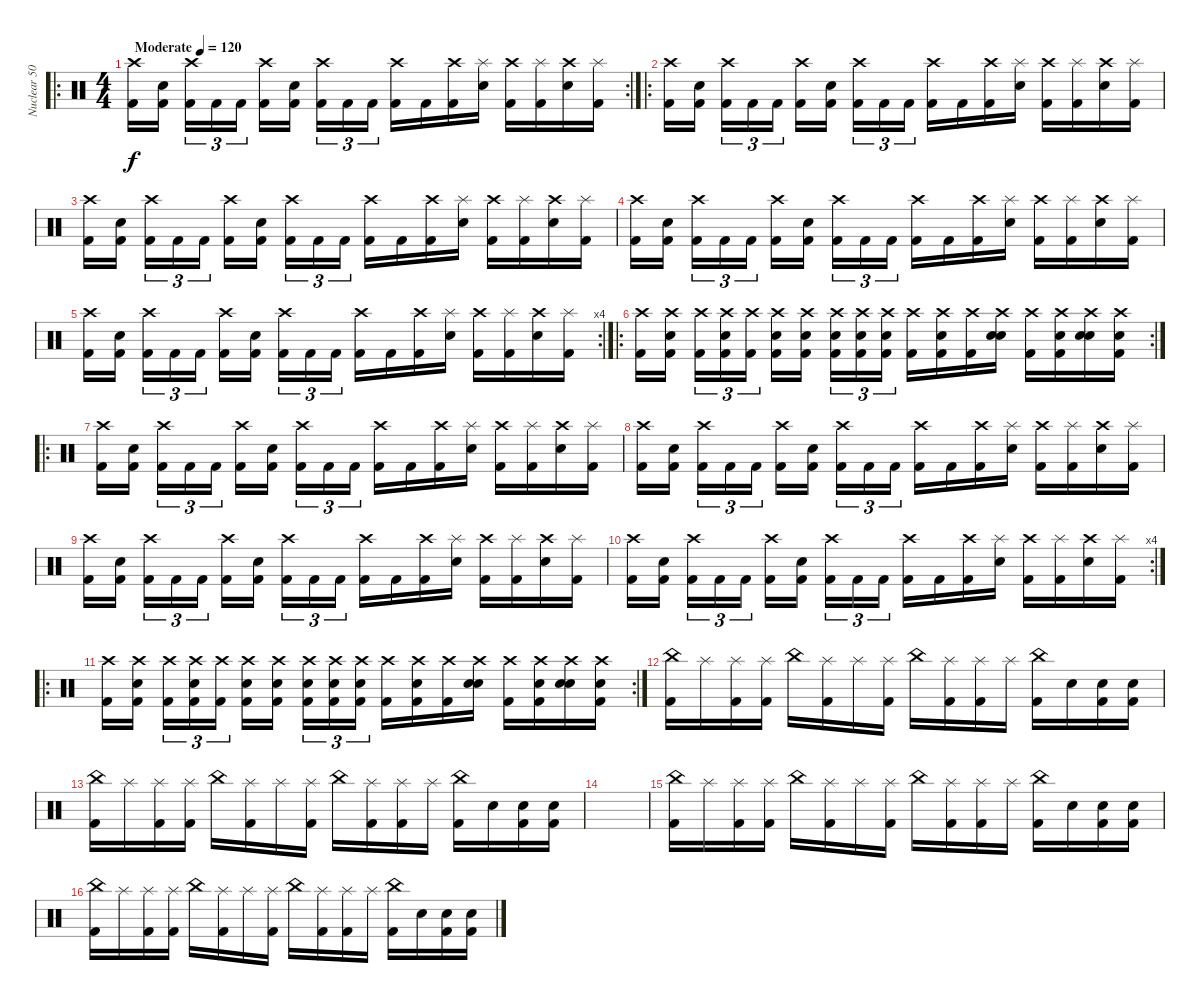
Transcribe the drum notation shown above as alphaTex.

\track ("Nuclear 5000" "Nuclear 50") {instrument percussion}
\staff {score}
\articulation defaults
\ro
\rc 2
\ts (4 4)
\tempo (120 "Moderate")
\clef neutral
\ks c
("Crash high (hit)" "Kick (hit) 2").16{dy f} ("Electric Snare (hit)" "Kick (hit) 2").16{beam splitsecondary} ("Crash high (hit)" "Kick (hit) 2").16{tu (3 2)} "Kick (hit) 2".16{tu (3 2)} "Kick (hit) 2".16{tu (3 2)} ("Crash high (hit)" "Kick (hit) 2").16 ("Electric Snare (hit)" "Kick (hit) 2").16{beam splitsecondary} ("Crash high (hit)" "Kick (hit) 2").16{tu (3 2)} "Kick (hit) 2".16{tu (3 2)} "Kick (hit) 2".16{tu (3 2)} ("Crash high (hit)" "Kick (hit) 2").16 "Kick (hit) 2".16 ("Crash high (hit)" "Kick (hit) 2").16 ("Splash (hit)" "Snare (hit) 2").16 ("Crash high (hit)" "Kick (hit) 2").16 ("Splash (hit)" "Kick (hit) 2").16 ("Crash high (hit)" "Snare (hit) 2").16 ("Splash (hit)" "Kick (hit) 2").16 |
\ro
("Crash high (hit)" "Kick (hit) 2").16 ("Electric Snare (hit)" "Kick (hit) 2").16{beam splitsecondary} ("Crash high (hit)" "Kick (hit) 2").16{tu (3 2)} "Kick (hit) 2".16{tu (3 2)} "Kick (hit) 2".16{tu (3 2)} ("Crash high (hit)" "Kick (hit) 2").16 ("Electric Snare (hit)" "Kick (hit) 2").16{beam splitsecondary} ("Crash high (hit)" "Kick (hit) 2").16{tu (3 2)} "Kick (hit) 2".16{tu (3 2)} "Kick (hit) 2".16{tu (3 2)} ("Crash high (hit)" "Kick (hit) 2").16 "Kick (hit) 2".16 ("Crash high (hit)" "Kick (hit) 2").16 ("Splash (hit)" "Snare (hit) 2").16 ("Crash high (hit)" "Kick (hit) 2").16 ("Splash (hit)" "Kick (hit) 2").16 ("Crash high (hit)" "Snare (hit) 2").16 ("Splash (hit)" "Kick (hit) 2").16 |
("Crash high (hit)" "Kick (hit) 2").16 ("Electric Snare (hit)" "Kick (hit) 2").16{beam splitsecondary} ("Crash high (hit)" "Kick (hit) 2").16{tu (3 2)} "Kick (hit) 2".16{tu (3 2)} "Kick (hit) 2".16{tu (3 2)} ("Crash high (hit)" "Kick (hit) 2").16 ("Electric Snare (hit)" "Kick (hit) 2").16{beam splitsecondary} ("Crash high (hit)" "Kick (hit) 2").16{tu (3 2)} "Kick (hit) 2".16{tu (3 2)} "Kick (hit) 2".16{tu (3 2)} ("Crash high (hit)" "Kick (hit) 2").16 "Kick (hit) 2".16 ("Crash high (hit)" "Kick (hit) 2").16 ("Splash (hit)" "Snare (hit) 2").16 ("Crash high (hit)" "Kick (hit) 2").16 ("Splash (hit)" "Kick (hit) 2").16 ("Crash high (hit)" "Snare (hit) 2").16 ("Splash (hit)" "Kick (hit) 2").16 |
("Crash high (hit)" "Kick (hit) 2").16 ("Electric Snare (hit)" "Kick (hit) 2").16{beam splitsecondary} ("Crash high (hit)" "Kick (hit) 2").16{tu (3 2)} "Kick (hit) 2".16{tu (3 2)} "Kick (hit) 2".16{tu (3 2)} ("Crash high (hit)" "Kick (hit) 2").16 ("Electric Snare (hit)" "Kick (hit) 2").16{beam splitsecondary} ("Crash high (hit)" "Kick (hit) 2").16{tu (3 2)} "Kick (hit) 2".16{tu (3 2)} "Kick (hit) 2".16{tu (3 2)} ("Crash high (hit)" "Kick (hit) 2").16 "Kick (hit) 2".16 ("Crash high (hit)" "Kick (hit) 2").16 ("Splash (hit)" "Snare (hit) 2").16 ("Crash high (hit)" "Kick (hit) 2").16 ("Splash (hit)" "Kick (hit) 2").16 ("Crash high (hit)" "Snare (hit) 2").16 ("Splash (hit)" "Kick (hit) 2").16 |
\rc 4
("Crash high (hit)" "Kick (hit) 2").16 ("Electric Snare (hit)" "Kick (hit) 2").16{beam splitsecondary} ("Crash high (hit)" "Kick (hit) 2").16{tu (3 2)} "Kick (hit) 2".16{tu (3 2)} "Kick (hit) 2".16{tu (3 2)} ("Crash high (hit)" "Kick (hit) 2").16 ("Electric Snare (hit)" "Kick (hit) 2").16{beam splitsecondary} ("Crash high (hit)" "Kick (hit) 2").16{tu (3 2)} "Kick (hit) 2".16{tu (3 2)} "Kick (hit) 2".16{tu (3 2)} ("Crash high (hit)" "Kick (hit) 2").16 "Kick (hit) 2".16 ("Crash high (hit)" "Kick (hit) 2").16 ("Splash (hit)" "Snare (hit) 2").16 ("Crash high (hit)" "Kick (hit) 2").16 ("Splash (hit)" "Kick (hit) 2").16 ("Crash high (hit)" "Snare (hit) 2").16 ("Splash (hit)" "Kick (hit) 2").16 |
\ro
\rc 2
("Crash high (hit)" "Kick (hit) 2").16 ("Crash high (hit)" "Electric Snare (hit)" "Kick (hit) 2").16{beam splitsecondary} ("Crash high (hit)" "Kick (hit) 2").16{tu (3 2)} ("Crash high (hit)" "Electric Snare (hit)" "Kick (hit) 2").16{tu (3 2)} ("Crash high (hit)" "Kick (hit) 2").16{tu (3 2)} ("Crash high (hit)" "Electric Snare (hit)" "Kick (hit) 2").16 ("Crash high (hit)" "Electric Snare (hit)" "Kick (hit) 2").16{beam splitsecondary} ("Crash high (hit)" "Electric Snare (hit)" "Kick (hit) 2").16{tu (3 2)} ("Crash high (hit)" "Electric Snare (hit)" "Kick (hit) 2").16{tu (3 2)} ("Crash high (hit)" "Electric Snare (hit)" "Kick (hit) 2").16{tu (3 2)} ("Crash high (hit)" "Kick (hit) 2").16 ("Crash high (hit)" "Electric Snare (hit)" "Kick (hit) 2").16 ("Crash high (hit)" "Kick (hit) 2").16 ("Crash high (hit)" "Electric Snare (hit)" "Snare (hit) 2").16 ("Crash high (hit)" "Kick (hit) 2").16 ("Crash high (hit)" "Electric Snare (hit)" "Kick (hit) 2").16 ("Crash high (hit)" "Electric Snare (hit)" "Snare (hit) 2").16 ("Crash high (hit)" "Electric Snare (hit)" "Kick (hit) 2").16 |
\ro
("Crash high (hit)" "Kick (hit) 2").16 ("Electric Snare (hit)" "Kick (hit) 2").16{beam splitsecondary} ("Crash high (hit)" "Kick (hit) 2").16{tu (3 2)} "Kick (hit) 2".16{tu (3 2)} "Kick (hit) 2".16{tu (3 2)} ("Crash high (hit)" "Kick (hit) 2").16 ("Electric Snare (hit)" "Kick (hit) 2").16{beam splitsecondary} ("Crash high (hit)" "Kick (hit) 2").16{tu (3 2)} "Kick (hit) 2".16{tu (3 2)} "Kick (hit) 2".16{tu (3 2)} ("Crash high (hit)" "Kick (hit) 2").16 "Kick (hit) 2".16 ("Crash high (hit)" "Kick (hit) 2").16 ("Splash (hit)" "Snare (hit) 2").16 ("Crash high (hit)" "Kick (hit) 2").16 ("Splash (hit)" "Kick (hit) 2").16 ("Crash high (hit)" "Snare (hit) 2").16 ("Splash (hit)" "Kick (hit) 2").16 |
("Crash high (hit)" "Kick (hit) 2").16 ("Electric Snare (hit)" "Kick (hit) 2").16{beam splitsecondary} ("Crash high (hit)" "Kick (hit) 2").16{tu (3 2)} "Kick (hit) 2".16{tu (3 2)} "Kick (hit) 2".16{tu (3 2)} ("Crash high (hit)" "Kick (hit) 2").16 ("Electric Snare (hit)" "Kick (hit) 2").16{beam splitsecondary} ("Crash high (hit)" "Kick (hit) 2").16{tu (3 2)} "Kick (hit) 2".16{tu (3 2)} "Kick (hit) 2".16{tu (3 2)} ("Crash high (hit)" "Kick (hit) 2").16 "Kick (hit) 2".16 ("Crash high (hit)" "Kick (hit) 2").16 ("Splash (hit)" "Snare (hit) 2").16 ("Crash high (hit)" "Kick (hit) 2").16 ("Splash (hit)" "Kick (hit) 2").16 ("Crash high (hit)" "Snare (hit) 2").16 ("Splash (hit)" "Kick (hit) 2").16 |
("Crash high (hit)" "Kick (hit) 2").16 ("Electric Snare (hit)" "Kick (hit) 2").16{beam splitsecondary} ("Crash high (hit)" "Kick (hit) 2").16{tu (3 2)} "Kick (hit) 2".16{tu (3 2)} "Kick (hit) 2".16{tu (3 2)} ("Crash high (hit)" "Kick (hit) 2").16 ("Electric Snare (hit)" "Kick (hit) 2").16{beam splitsecondary} ("Crash high (hit)" "Kick (hit) 2").16{tu (3 2)} "Kick (hit) 2".16{tu (3 2)} "Kick (hit) 2".16{tu (3 2)} ("Crash high (hit)" "Kick (hit) 2").16 "Kick (hit) 2".16 ("Crash high (hit)" "Kick (hit) 2").16 ("Splash (hit)" "Snare (hit) 2").16 ("Crash high (hit)" "Kick (hit) 2").16 ("Splash (hit)" "Kick (hit) 2").16 ("Crash high (hit)" "Snare (hit) 2").16 ("Splash (hit)" "Kick (hit) 2").16 |
\rc 4
("Crash high (hit)" "Kick (hit) 2").16 ("Electric Snare (hit)" "Kick (hit) 2").16{beam splitsecondary} ("Crash high (hit)" "Kick (hit) 2").16{tu (3 2)} "Kick (hit) 2".16{tu (3 2)} "Kick (hit) 2".16{tu (3 2)} ("Crash high (hit)" "Kick (hit) 2").16 ("Electric Snare (hit)" "Kick (hit) 2").16{beam splitsecondary} ("Crash high (hit)" "Kick (hit) 2").16{tu (3 2)} "Kick (hit) 2".16{tu (3 2)} "Kick (hit) 2".16{tu (3 2)} ("Crash high (hit)" "Kick (hit) 2").16 "Kick (hit) 2".16 ("Crash high (hit)" "Kick (hit) 2").16 ("Splash (hit)" "Snare (hit) 2").16 ("Crash high (hit)" "Kick (hit) 2").16 ("Splash (hit)" "Kick (hit) 2").16 ("Crash high (hit)" "Snare (hit) 2").16 ("Splash (hit)" "Kick (hit) 2").16 |
\ro
\rc 2
("Crash high (hit)" "Kick (hit) 2").16 ("Crash high (hit)" "Electric Snare (hit)" "Kick (hit) 2").16{beam splitsecondary} ("Crash high (hit)" "Kick (hit) 2").16{tu (3 2)} ("Crash high (hit)" "Electric Snare (hit)" "Kick (hit) 2").16{tu (3 2)} ("Crash high (hit)" "Kick (hit) 2").16{tu (3 2)} ("Crash high (hit)" "Electric Snare (hit)" "Kick (hit) 2").16 ("Crash high (hit)" "Electric Snare (hit)" "Kick (hit) 2").16{beam splitsecondary} ("Crash high (hit)" "Electric Snare (hit)" "Kick (hit) 2").16{tu (3 2)} ("Crash high (hit)" "Electric Snare (hit)" "Kick (hit) 2").16{tu (3 2)} ("Crash high (hit)" "Electric Snare (hit)" "Kick (hit) 2").16{tu (3 2)} ("Crash high (hit)" "Kick (hit) 2").16 ("Crash high (hit)" "Electric Snare (hit)" "Kick (hit) 2").16 ("Crash high (hit)" "Kick (hit) 2").16 ("Crash high (hit)" "Electric Snare (hit)" "Snare (hit) 2").16 ("Crash high (hit)" "Kick (hit) 2").16 ("Crash high (hit)" "Electric Snare (hit)" "Kick (hit) 2").16 ("Crash high (hit)" "Electric Snare (hit)" "Snare (hit) 2").16 ("Crash high (hit)" "Electric Snare (hit)" "Kick (hit) 2").16 |
("China (hit)" "Kick (hit) 2").16 "Splash (hit)".16 ("Splash (hit)" "Kick (hit) 2").16 ("Splash (hit)" "Kick (hit) 2").16 "China (hit)".16 ("Splash (hit)" "Kick (hit) 2").16 "Splash (hit)".16 ("Splash (hit)" "Kick (hit) 2").16 "China (hit)".16 ("Splash (hit)" "Kick (hit) 2").16 ("Splash (hit)" "Kick (hit) 2").16 "Splash (hit)".16 ("China (hit)" "Kick (hit) 2").16 "Electric Snare (hit)".16 ("Electric Snare (hit)" "Kick (hit) 2").16 ("Electric Snare (hit)" "Kick (hit) 2").16 |
("China (hit)" "Kick (hit) 2").16 "Splash (hit)".16 ("Splash (hit)" "Kick (hit) 2").16 ("Splash (hit)" "Kick (hit) 2").16 "China (hit)".16 ("Splash (hit)" "Kick (hit) 2").16 "Splash (hit)".16 ("Splash (hit)" "Kick (hit) 2").16 "China (hit)".16 ("Splash (hit)" "Kick (hit) 2").16 ("Splash (hit)" "Kick (hit) 2").16 "Splash (hit)".16 ("China (hit)" "Kick (hit) 2").16 "Electric Snare (hit)".16 ("Electric Snare (hit)" "Kick (hit) 2").16 ("Electric Snare (hit)" "Kick (hit) 2").16 |
|
("China (hit)" "Kick (hit) 2").16 "Splash (hit)".16 ("Splash (hit)" "Kick (hit) 2").16 ("Splash (hit)" "Kick (hit) 2").16 "China (hit)".16 ("Splash (hit)" "Kick (hit) 2").16 "Splash (hit)".16 ("Splash (hit)" "Kick (hit) 2").16 "China (hit)".16 ("Splash (hit)" "Kick (hit) 2").16 ("Splash (hit)" "Kick (hit) 2").16 "Splash (hit)".16 ("China (hit)" "Kick (hit) 2").16 "Electric Snare (hit)".16 ("Electric Snare (hit)" "Kick (hit) 2").16 ("Electric Snare (hit)" "Kick (hit) 2").16 |
("China (hit)" "Kick (hit) 2").16 "Splash (hit)".16 ("Splash (hit)" "Kick (hit) 2").16 ("Splash (hit)" "Kick (hit) 2").16 "China (hit)".16 ("Splash (hit)" "Kick (hit) 2").16 "Splash (hit)".16 ("Splash (hit)" "Kick (hit) 2").16 "China (hit)".16 ("Splash (hit)" "Kick (hit) 2").16 ("Splash (hit)" "Kick (hit) 2").16 "Splash (hit)".16 ("China (hit)" "Kick (hit) 2").16 "Electric Snare (hit)".16 ("Electric Snare (hit)" "Kick (hit) 2").16 ("Electric Snare (hit)" "Kick (hit) 2").16
